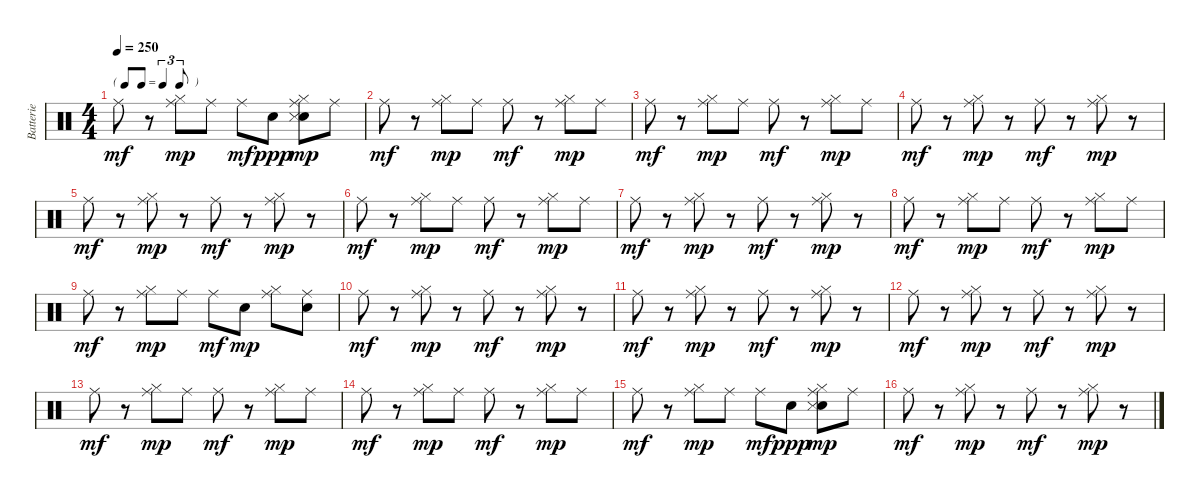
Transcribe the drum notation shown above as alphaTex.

\track ("Batterie" "Batterie") {instrument percussion}
\staff {score}
\articulation defaults
\ts (4 4)
\tf triplet8th
\tempo 250
\clef neutral
\ks c "Ride (middle)".8{dy mf}
r.8 ("Hi-Hat (closed)" "Ride (middle)").8{dy mp} "Ride (middle)".8 "Ride (middle)".8{dy mf} "Snare (hit) 2".8{dy ppp} ("Snare (hit) 2" "Hi-Hat (closed)" "Snare (side stick) 3" "Ride (middle)").8{dy mp} "Ride (middle)".8 |
"Ride (middle)".8{dy mf} r.8 ("Hi-Hat (closed)" "Ride (middle)").8{dy mp} "Ride (middle)".8 "Ride (middle)".8{dy mf} r.8 ("Hi-Hat (closed)" "Ride (middle)").8{dy mp} "Ride (middle)".8 |
"Ride (middle)".8{dy mf} r.8 ("Hi-Hat (closed)" "Ride (middle)").8{dy mp} "Ride (middle)".8 "Ride (middle)".8{dy mf} r.8 ("Hi-Hat (closed)" "Ride (middle)").8{dy mp} "Ride (middle)".8 |
"Ride (middle)".8{dy mf} r.8 ("Hi-Hat (closed)" "Ride (middle)").8{dy mp} r.8 "Ride (middle)".8{dy mf} r.8 ("Hi-Hat (closed)" "Ride (middle)").8{dy mp} r.8 |
"Ride (middle)".8{dy mf} r.8 ("Hi-Hat (closed)" "Ride (middle)").8{dy mp} r.8 "Ride (middle)".8{dy mf} r.8 ("Hi-Hat (closed)" "Ride (middle)").8{dy mp} r.8 |
"Ride (middle)".8{dy mf} r.8 ("Hi-Hat (closed)" "Ride (middle)").8{dy mp} "Ride (middle)".8 "Ride (middle)".8{dy mf} r.8 ("Hi-Hat (closed)" "Ride (middle)").8{dy mp} "Ride (middle)".8 |
"Ride (middle)".8{dy mf} r.8 ("Hi-Hat (closed)" "Ride (middle)").8{dy mp} r.8 "Ride (middle)".8{dy mf} r.8 ("Hi-Hat (closed)" "Ride (middle)").8{dy mp} r.8 |
"Ride (middle)".8{dy mf} r.8 ("Hi-Hat (closed)" "Ride (middle)").8{dy mp} "Ride (middle)".8 "Ride (middle)".8{dy mf} r.8 ("Hi-Hat (closed)" "Ride (middle)").8{dy mp} "Ride (middle)".8 |
"Ride (middle)".8{dy mf} r.8 ("Hi-Hat (closed)" "Ride (middle)").8{dy mp} "Ride (middle)".8 "Ride (middle)".8{dy mf} "Snare (hit) 2".8{dy mp} ("Hi-Hat (closed)" "Ride (middle)").8 ("Snare (hit) 2" "Ride (middle)").8 |
"Ride (middle)".8{dy mf} r.8 ("Hi-Hat (closed)" "Ride (middle)").8{dy mp} r.8 "Ride (middle)".8{dy mf} r.8 ("Hi-Hat (closed)" "Ride (middle)").8{dy mp} r.8 |
"Ride (middle)".8{dy mf} r.8 ("Hi-Hat (closed)" "Ride (middle)").8{dy mp} r.8 "Ride (middle)".8{dy mf} r.8 ("Hi-Hat (closed)" "Ride (middle)").8{dy mp} r.8 |
"Ride (middle)".8{dy mf} r.8 ("Hi-Hat (closed)" "Ride (middle)").8{dy mp} r.8 "Ride (middle)".8{dy mf} r.8 ("Hi-Hat (closed)" "Ride (middle)").8{dy mp} r.8 |
"Ride (middle)".8{dy mf} r.8 ("Hi-Hat (closed)" "Ride (middle)").8{dy mp} "Ride (middle)".8 "Ride (middle)".8{dy mf} r.8 ("Hi-Hat (closed)" "Ride (middle)").8{dy mp} "Ride (middle)".8 |
"Ride (middle)".8{dy mf} r.8 ("Hi-Hat (closed)" "Ride (middle)").8{dy mp} "Ride (middle)".8 "Ride (middle)".8{dy mf} r.8 ("Hi-Hat (closed)" "Ride (middle)").8{dy mp} "Ride (middle)".8 |
"Ride (middle)".8{dy mf} r.8 ("Hi-Hat (closed)" "Ride (middle)").8{dy mp} "Ride (middle)".8 "Ride (middle)".8{dy mf} "Snare (hit) 2".8{dy ppp} ("Snare (hit) 2" "Hi-Hat (closed)" "Snare (side stick) 3" "Ride (middle)").8{dy mp} "Ride (middle)".8 |
"Ride (middle)".8{dy mf} r.8 ("Hi-Hat (closed)" "Ride (middle)").8{dy mp} r.8 "Ride (middle)".8{dy mf} r.8 ("Hi-Hat (closed)" "Ride (middle)").8{dy mp} r.8
